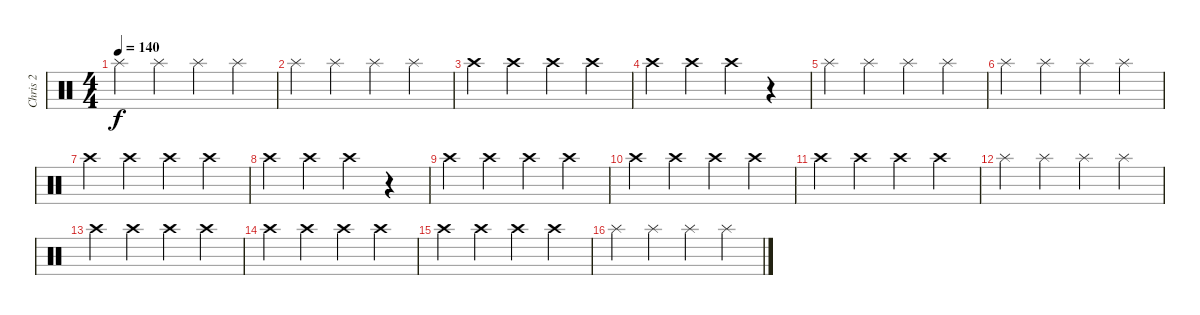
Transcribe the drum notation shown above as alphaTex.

\track ("Chris 2" "Chris 2") {instrument percussion}
\staff {score}
\articulation defaults
\ts (4 4)
\tempo 140
\clef neutral
\ks c "Splash (hit)".4{dy f} "Splash (hit)".4 "Splash (hit)".4 "Splash (hit)".4
|
"Splash (hit)".4 "Splash (hit)".4 "Splash (hit)".4 "Splash (hit)".4 |
"Crash high (hit)".4 "Crash high (hit)".4 "Crash high (hit)".4 "Crash high (hit)".4 |
"Crash high (hit)".4 "Crash high (hit)".4 "Crash high (hit)".4 r.4 |
"Splash (hit)".4 "Splash (hit)".4 "Splash (hit)".4 "Splash (hit)".4 |
"Splash (hit)".4 "Splash (hit)".4 "Splash (hit)".4 "Splash (hit)".4 |
"Crash high (hit)".4 "Crash high (hit)".4 "Crash high (hit)".4 "Crash high (hit)".4 |
"Crash high (hit)".4 "Crash high (hit)".4 "Crash high (hit)".4 r.4 |
"Crash high (hit)".4 "Crash high (hit)".4 "Crash high (hit)".4 "Crash high (hit)".4 |
"Crash high (hit)".4 "Crash high (hit)".4 "Crash high (hit)".4 "Crash high (hit)".4 |
"Crash high (hit)".4 "Crash high (hit)".4 "Crash high (hit)".4 "Crash high (hit)".4 |
"Splash (hit)".4 "Splash (hit)".4 "Splash (hit)".4 "Splash (hit)".4 |
"Crash high (hit)".4 "Crash high (hit)".4 "Crash high (hit)".4 "Crash high (hit)".4 |
"Crash high (hit)".4 "Crash high (hit)".4 "Crash high (hit)".4 "Crash high (hit)".4 |
"Crash high (hit)".4 "Crash high (hit)".4 "Crash high (hit)".4 "Crash high (hit)".4 |
"Splash (hit)".4 "Splash (hit)".4 "Splash (hit)".4 "Splash (hit)".4
